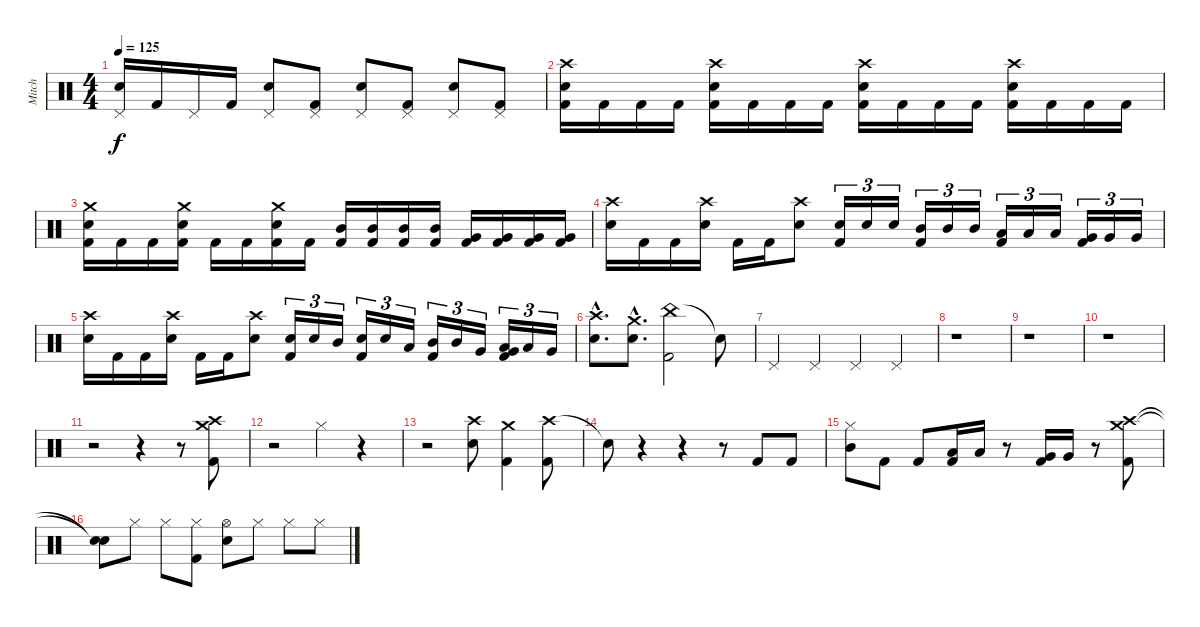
\track ("Mitch" "Mitch") {instrument percussion}
\staff {score}
\articulation defaults
\ts (4 4)
\tempo 125
\clef neutral
\ks c
("Snare (hit) 2" "Pedal Hi-Hat (hit)").16{dy f} "Kick (hit) 2".16 "Pedal Hi-Hat (hit)".16 "Kick (hit) 2".16 ("Snare (hit) 2" "Pedal Hi-Hat (hit)").8 ("Kick (hit) 2" "Pedal Hi-Hat (hit)").8 ("Snare (hit) 2" "Pedal Hi-Hat (hit)").8 ("Kick (hit) 2" "Pedal Hi-Hat (hit)").8 ("Snare (hit) 2" "Pedal Hi-Hat (hit)").8 ("Kick (hit) 2" "Pedal Hi-Hat (hit)").8 |
("Crash high (hit)" "Snare (hit) 2" "Kick (hit) 2").16 "Kick (hit) 2".16 "Kick (hit) 2".16 "Kick (hit) 2".16 ("Crash high (hit)" "Snare (hit) 2" "Kick (hit) 2").16 "Kick (hit) 2".16 "Kick (hit) 2".16 "Kick (hit) 2".16 ("Crash high (hit)" "Snare (hit) 2" "Kick (hit) 2").16 "Kick (hit) 2".16 "Kick (hit) 2".16 "Kick (hit) 2".16 ("Crash high (hit)" "Snare (hit) 2" "Kick (hit) 2").16 "Kick (hit) 2".16 "Kick (hit) 2".16 "Kick (hit) 2".16 |
("Crash medium (hit)" "Snare (hit) 2" "Kick (hit) 2").16 "Kick (hit) 2".16 "Kick (hit) 2".16 ("Crash medium (hit)" "Snare (hit) 2" "Kick (hit) 2").16 "Kick (hit) 2".16 "Kick (hit) 2".16 ("Crash medium (hit)" "Snare (hit) 2" "Kick (hit) 2").16 "Kick (hit) 2".16 ("Mid Tom (hit)" "Kick (hit) 2").16 ("Mid Tom (hit)" "Kick (hit) 2").16 ("Mid Tom (hit)" "Kick (hit) 2").16 ("Mid Tom (hit)" "Kick (hit) 2").16 ("Very Low Tom (hit)" "Kick (hit) 2").16 ("Very Low Tom (hit)" "Kick (hit) 2").16 ("Very Low Tom (hit)" "Kick (hit) 2").16 ("Very Low Tom (hit)" "Kick (hit) 2").16 |
("Crash high (hit)" "Snare (hit) 2").16 "Kick (hit) 2".16 "Kick (hit) 2".16 ("Crash high (hit)" "Snare (hit) 2").16 "Kick (hit) 2".16 "Kick (hit) 2".16 ("Crash high (hit)" "Snare (hit) 2").8 ("Snare (hit) 2" "Kick (hit) 2").16{tu (3 2)} "Snare (hit) 2".16{tu (3 2)} "Snare (hit) 2".16{tu (3 2)} ("Mid Tom (hit)" "Kick (hit) 2").16{tu (3 2)} "Mid Tom (hit)".16{tu (3 2)} "Mid Tom (hit)".16{tu (3 2)} ("Low Tom (hit)" "Kick (hit) 2").16{tu (3 2)} "Low Tom (hit)".16{tu (3 2)} "Low Tom (hit)".16{tu (3 2)} ("Very Low Tom (hit)" "Kick (hit) 2").16{tu (3 2)} "Very Low Tom (hit)".16{tu (3 2)} "Very Low Tom (hit)".16{tu (3 2)} |
("Crash high (hit)" "Snare (hit) 2").16 "Kick (hit) 2".16 "Kick (hit) 2".16 ("Crash high (hit)" "Snare (hit) 2").16 "Kick (hit) 2".16 "Kick (hit) 2".16 ("Crash high (hit)" "Snare (hit) 2").8 ("Snare (hit) 2" "Kick (hit) 2").16{tu (3 2)} "Snare (hit) 2".16{tu (3 2)} "Mid Tom (hit)".16{tu (3 2)} ("Snare (hit) 2" "Kick (hit) 2").16{tu (3 2)} "Snare (hit) 2".16{tu (3 2)} "Low Tom (hit)".16{tu (3 2)} ("Mid Tom (hit)" "Kick (hit) 2").16{tu (3 2)} "Mid Tom (hit)".16{tu (3 2)} "Very Low Tom (hit)".16{tu (3 2)} ("Very Low Tom (hit)" "Low Tom (hit)" "Kick (hit) 2").16{tu (3 2)} "Low Tom (hit)".16{tu (3 2)} "Very Low Tom (hit)".16{tu (3 2)} |
("Crash high (hit)"{hac} "Snare (hit) 2"{hac}).8{d} ("Crash medium (hit)"{hac} "Snare (hit) 2"{hac}).8{d} ("China (hit)" "Kick (hit) 2").2 "Snare (hit)"{t}.8 |
"Pedal Hi-Hat (hit)".4 "Pedal Hi-Hat (hit)".4 "Pedal Hi-Hat (hit)".4 "Pedal Hi-Hat (hit)".4 |
r.1 |
r.1 |
r.1 |
r.2 r.4 r.8 ("Crash high (hit)" "Crash medium (hit)" "Kick (hit) 2").8 |
r.2 "Hi-Hat (closed)".4 r.4 |
r.2 ("Crash high (hit)" "Snare (hit) 2").8 ("Crash medium (hit)" "Kick (hit) 2").4 ("Crash high (hit)" "Kick (hit) 2").8 |
"Snare (hit)"{t}.8 r.4 r.4 r.8 "Kick (hit) 2".8 "Kick (hit) 2".8 |
("Mid Tom (hit)" "Hi-Hat (closed)").8 "Kick (hit) 2".8 "Kick (hit) 2".8 ("Low Tom (hit)" "Kick (hit) 2").16 "Low Tom (hit)".16 r.8 ("Very Low Tom (hit)" "Kick (hit) 2").16 "Very Low Tom (hit)".16 r.8 ("Crash high (hit)" "Crash medium (hit)" "Kick (hit) 2").8 |
("Snare (hit)"{t} "Snare (hit)"{t}).8 "Hi-Hat (closed)".8 "Hi-Hat (closed)".8 ("Kick (hit) 2" "Hi-Hat (closed)").8 ("Snare (hit) 2" "Hi-Hat (open)").8 "Hi-Hat (closed)".8 "Hi-Hat (closed)".8 "Hi-Hat (closed)".8
